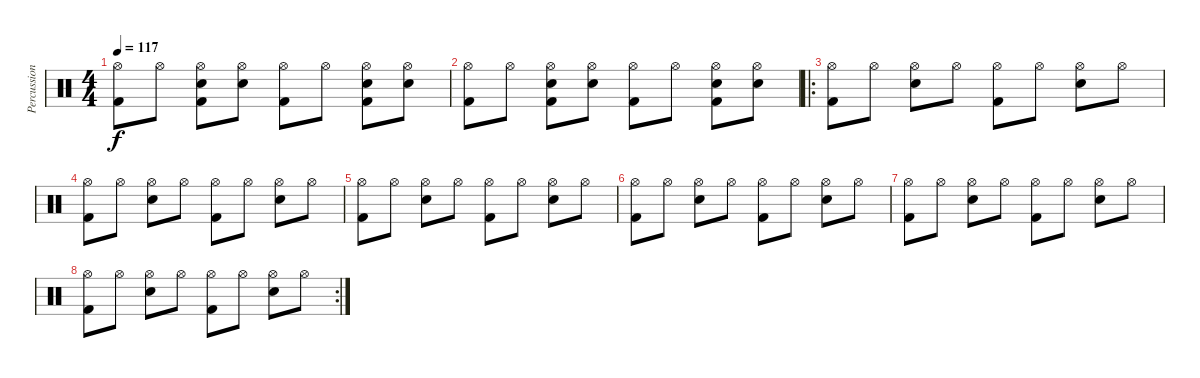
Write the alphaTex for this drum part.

\track ("Percussion" "Percussion") {instrument percussion}
\staff {score}
\articulation defaults
\ts (4 4)
\tempo 117
\clef neutral
\ks c
("Hi-Hat (open)" "Kick (hit) 2").8{dy f} "Hi-Hat (open)".8 ("Hi-Hat (open)" "Snare (hit) 2" "Kick (hit) 2").8 ("Hi-Hat (open)" "Snare (hit) 2").8 ("Hi-Hat (open)" "Kick (hit) 2").8 "Hi-Hat (open)".8 ("Hi-Hat (open)" "Snare (hit) 2" "Kick (hit) 2").8 ("Hi-Hat (open)" "Snare (hit) 2").8 |
("Hi-Hat (open)" "Kick (hit) 2").8 "Hi-Hat (open)".8 ("Hi-Hat (open)" "Snare (hit) 2" "Kick (hit) 2").8 ("Hi-Hat (open)" "Snare (hit) 2").8 ("Hi-Hat (open)" "Kick (hit) 2").8 "Hi-Hat (open)".8 ("Hi-Hat (open)" "Snare (hit) 2" "Kick (hit) 2").8 ("Hi-Hat (open)" "Snare (hit) 2").8 |
\ro
("Hi-Hat (open)" "Kick (hit) 2").8 "Hi-Hat (open)".8 ("Hi-Hat (open)" "Snare (hit) 2").8 "Hi-Hat (open)".8 ("Hi-Hat (open)" "Kick (hit) 2").8 "Hi-Hat (open)".8 ("Hi-Hat (open)" "Snare (hit) 2").8 "Hi-Hat (open)".8 |
("Hi-Hat (open)" "Kick (hit) 2").8 "Hi-Hat (open)".8 ("Hi-Hat (open)" "Snare (hit) 2").8 "Hi-Hat (open)".8 ("Hi-Hat (open)" "Kick (hit) 2").8 "Hi-Hat (open)".8 ("Hi-Hat (open)" "Snare (hit) 2").8 "Hi-Hat (open)".8 |
("Hi-Hat (open)" "Kick (hit) 2").8 "Hi-Hat (open)".8 ("Hi-Hat (open)" "Snare (hit) 2").8 "Hi-Hat (open)".8 ("Hi-Hat (open)" "Kick (hit) 2").8 "Hi-Hat (open)".8 ("Hi-Hat (open)" "Snare (hit) 2").8 "Hi-Hat (open)".8 |
("Hi-Hat (open)" "Kick (hit) 2").8 "Hi-Hat (open)".8 ("Hi-Hat (open)" "Snare (hit) 2").8 "Hi-Hat (open)".8 ("Hi-Hat (open)" "Kick (hit) 2").8 "Hi-Hat (open)".8 ("Hi-Hat (open)" "Snare (hit) 2").8 "Hi-Hat (open)".8 |
("Hi-Hat (open)" "Kick (hit) 2").8 "Hi-Hat (open)".8 ("Hi-Hat (open)" "Snare (hit) 2").8 "Hi-Hat (open)".8 ("Hi-Hat (open)" "Kick (hit) 2").8 "Hi-Hat (open)".8 ("Hi-Hat (open)" "Snare (hit) 2").8 "Hi-Hat (open)".8 |
\rc 2
("Hi-Hat (open)" "Kick (hit) 2").8 "Hi-Hat (open)".8 ("Hi-Hat (open)" "Snare (hit) 2").8 "Hi-Hat (open)".8 ("Hi-Hat (open)" "Kick (hit) 2").8 "Hi-Hat (open)".8 ("Hi-Hat (open)" "Snare (hit) 2").8 "Hi-Hat (open)".8
